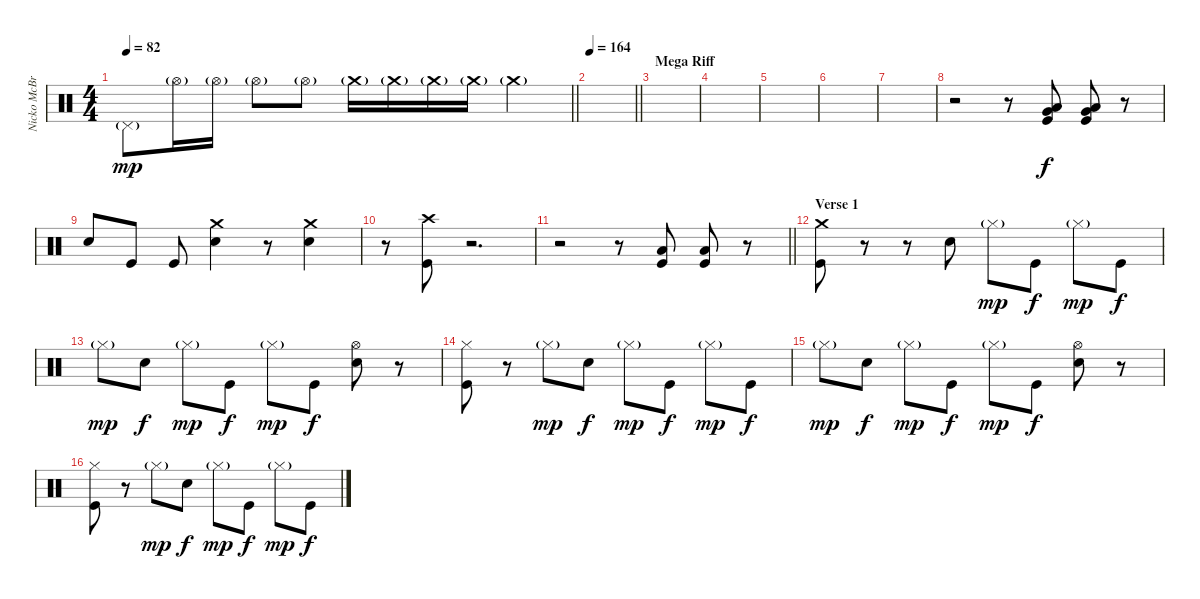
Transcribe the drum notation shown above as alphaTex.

\track ("Nicko McBrain" "Nicko McBr") {instrument percussion}
\staff {score}
\articulation defaults
\ts (4 4)
\tempo 82
\clef neutral
\barLineRight lightlight
\ks c "Pedal Hi-Hat (hit)"{g}.8{dy mp} "Hi-Hat (open)"{g}.16 "Hi-Hat (open)"{g}.16 "Hi-Hat (open)"{g}.8 "Hi-Hat (open)"{g}.8 "Crash medium (hit)"{g}.16 "Crash medium (hit)"{g}.16 "Crash medium (hit)"{g}.16 "Crash medium (hit)"{g}.16 "Crash medium (hit)"{g}.4
|
\tempo 164
\barLineRight lightlight
|
\section ("" "Mega Riff")
|
|
|
|
|
r.2 r.8 ("Very Low Tom (hit)" "Low Floor Tom (hit)" "Kick (hit)").8{dy f} ("Very Low Tom (hit)" "Low Floor Tom (hit)" "Kick (hit)").8 r.8 |
"Electric Snare (hit)".8 "Kick (hit)".8 "Kick (hit)".8 ("Crash medium (hit)" "Electric Snare (hit)").4 r.8 ("Crash medium (hit)" "Electric Snare (hit)").4 |
r.8 ("Crash high (hit)" "Kick (hit)").8 r.2{d} |
\barLineRight lightlight
r.2 r.8 ("Low Tom (hit)" "Kick (hit)").8 ("Low Tom (hit)" "Kick (hit)").8 r.8 |
\section ("" "Verse 1")
("Crash medium (hit)" "Kick (hit)").8 r.8 r.8 "Electric Snare (hit)".8 "Hi-Hat (closed)"{g}.8{dy mp} "Kick (hit)".8{dy f} "Hi-Hat (closed)"{g}.8{dy mp} "Kick (hit)".8{dy f} |
"Hi-Hat (closed)"{g}.8{dy mp} "Electric Snare (hit)".8{dy f} "Hi-Hat (closed)"{g}.8{dy mp} "Kick (hit)".8{dy f} "Hi-Hat (closed)"{g}.8{dy mp} "Kick (hit)".8{dy f} ("Hi-Hat (open)" "Electric Snare (hit)").8 r.8 |
("Hi-Hat (closed)" "Kick (hit)").8 r.8 "Hi-Hat (closed)"{g}.8{dy mp} "Electric Snare (hit)".8{dy f} "Hi-Hat (closed)"{g}.8{dy mp} "Kick (hit)".8{dy f} "Hi-Hat (closed)"{g}.8{dy mp} "Kick (hit)".8{dy f} |
"Hi-Hat (closed)"{g}.8{dy mp} "Electric Snare (hit)".8{dy f} "Hi-Hat (closed)"{g}.8{dy mp} "Kick (hit)".8{dy f} "Hi-Hat (closed)"{g}.8{dy mp} "Kick (hit)".8{dy f} ("Hi-Hat (open)" "Electric Snare (hit)").8 r.8 |
("Hi-Hat (closed)" "Kick (hit)").8 r.8 "Hi-Hat (closed)"{g}.8{dy mp} "Electric Snare (hit)".8{dy f} "Hi-Hat (closed)"{g}.8{dy mp} "Kick (hit)".8{dy f} "Hi-Hat (closed)"{g}.8{dy mp} "Kick (hit)".8{dy f}
